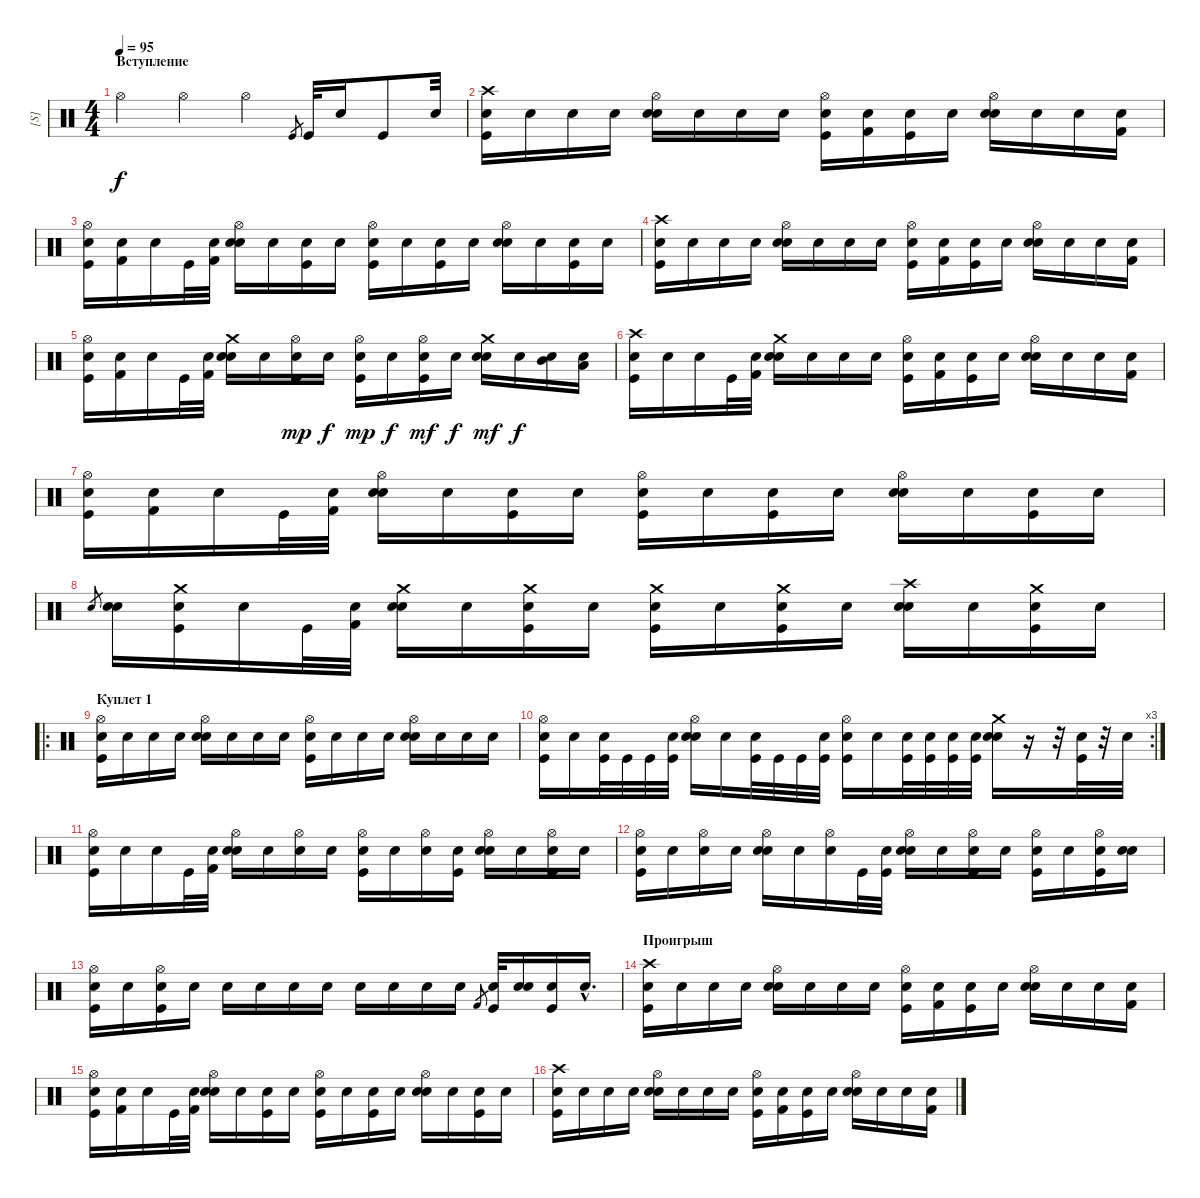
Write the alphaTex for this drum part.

\track ("[S]" "[S]") {instrument percussion}
\staff {score}
\articulation defaults
\ts (4 4)
\section ("" "Вступление")
\tempo 95
\clef neutral
\ks c "Hi-Hat (open)".4{dy f} "Hi-Hat (open)".4 "Hi-Hat (open)".4 "Kick (hit)".8{gr} "Kick (hit)".32 "Snare (hit) 2".16 "Kick (hit)".8 "Snare (hit)"{x}.32
|
("Crash high (hit)" "Kick (hit)" "Snare (hit)"{x}).16 "Snare (hit)"{x}.16 "Snare (hit)"{x}.16 "Snare (hit)"{x}.16 ("Hi-Hat (open)" "Snare (hit) 2" "Snare (hit)"{x}).16 "Snare (hit)"{x}.16 "Snare (hit)"{x}.16 "Snare (hit)"{x}.16 ("Hi-Hat (open)" "Kick (hit)" "Snare (hit)"{x}).16 ("Kick (hit) 2" "Snare (hit)"{x}).16 ("Kick (hit)" "Snare (hit)"{x}).16 "Snare (hit)"{x}.16 ("Hi-Hat (open)" "Snare (hit) 2" "Snare (hit)"{x}).16 "Snare (hit)"{x}.16 "Snare (hit)"{x}.16 ("Kick (hit) 2" "Snare (hit)"{x}).16 |
("Hi-Hat (open)" "Kick (hit)" "Snare (hit)"{x}).16 ("Kick (hit) 2" "Snare (hit)"{x}).16 "Snare (hit)"{x}.16 "Kick (hit)".32 ("Kick (hit) 2" "Snare (hit)"{x}).32 ("Hi-Hat (open)" "Snare (hit) 2" "Snare (hit)"{x}).16 "Snare (hit)"{x}.16 ("Kick (hit)" "Snare (hit)"{x}).16 "Snare (hit)"{x}.16 ("Hi-Hat (open)" "Kick (hit)" "Snare (hit)"{x}).16 "Snare (hit)"{x}.16 ("Kick (hit)" "Snare (hit)"{x}).16 "Snare (hit)"{x}.16 ("Hi-Hat (open)" "Snare (hit) 2" "Snare (hit)"{x}).16 "Snare (hit)"{x}.16 ("Kick (hit)" "Snare (hit)"{x}).16 "Snare (hit)"{x}.16 |
("Crash high (hit)" "Kick (hit)" "Snare (hit)"{x}).16 "Snare (hit)"{x}.16 "Snare (hit)"{x}.16 "Snare (hit)"{x}.16 ("Hi-Hat (open)" "Snare (hit) 2" "Snare (hit)"{x}).16 "Snare (hit)"{x}.16 "Snare (hit)"{x}.16 "Snare (hit)"{x}.16 ("Hi-Hat (open)" "Kick (hit)" "Snare (hit)"{x}).16 ("Kick (hit) 2" "Snare (hit)"{x}).16 ("Kick (hit)" "Snare (hit)"{x}).16 "Snare (hit)"{x}.16 ("Hi-Hat (open)" "Snare (hit) 2" "Snare (hit)"{x}).16 "Snare (hit)"{x}.16 "Snare (hit)"{x}.16 ("Kick (hit) 2" "Snare (hit)"{x}).16 |
("Hi-Hat (open)" "Kick (hit)" "Snare (hit)"{x}).16 ("Kick (hit) 2" "Snare (hit)"{x}).16 "Snare (hit)"{x}.16 "Kick (hit)".32 ("Kick (hit) 2" "Snare (hit)"{x}).32 ("Crash medium (hit)" "Snare (hit) 2" "Snare (hit)"{x}).16 "Snare (hit)"{x}.16 ("Hi-Hat (open)" "Kick (hit)" "Snare (hit)"{x}).16{dy mp} "Snare (hit)"{x}.16{dy f} ("Hi-Hat (open)" "Kick (hit)" "Snare (hit)"{x}).16{dy mp} "Snare (hit)"{x}.16{dy f} ("Hi-Hat (open)" "Kick (hit)" "Snare (hit)"{x}).16{dy mf} "Snare (hit)"{x}.16{dy f} ("Crash medium (hit)" "Snare (hit) 2" "Snare (hit)"{x}).16{dy mf} "Snare (hit)"{x}.16{dy f} ("Mid Tom (hit)" "Snare (hit)"{x}).16 ("Low Tom (hit)" "Snare (hit)"{x}).16 |
("Crash high (hit)" "Kick (hit)" "Snare (hit)"{x}).16 "Snare (hit)"{x}.16 "Snare (hit)"{x}.16 "Kick (hit)".32 ("Kick (hit) 2" "Snare (hit)"{x}).32 ("Crash medium (hit)" "Snare (hit) 2" "Snare (hit)"{x}).16 "Snare (hit)"{x}.16 "Snare (hit)"{x}.16 "Snare (hit)"{x}.16 ("Hi-Hat (open)" "Kick (hit)" "Snare (hit)"{x}).16 ("Kick (hit) 2" "Snare (hit)"{x}).16 ("Kick (hit)" "Snare (hit)"{x}).16 "Snare (hit)"{x}.16 ("Hi-Hat (open)" "Snare (hit) 2" "Snare (hit)"{x}).16 "Snare (hit)"{x}.16 "Snare (hit)"{x}.16 ("Kick (hit) 2" "Snare (hit)"{x}).16 |
("Hi-Hat (open)" "Kick (hit)" "Snare (hit)"{x}).16 ("Kick (hit) 2" "Snare (hit)"{x}).16 "Snare (hit)"{x}.16 "Kick (hit)".32 ("Kick (hit) 2" "Snare (hit)"{x}).32 ("Hi-Hat (open)" "Snare (hit) 2" "Snare (hit)"{x}).16 "Snare (hit)"{x}.16 ("Kick (hit)" "Snare (hit)"{x}).16 "Snare (hit)"{x}.16 ("Hi-Hat (open)" "Kick (hit)" "Snare (hit)"{x}).16 "Snare (hit)"{x}.16 ("Kick (hit)" "Snare (hit)"{x}).16 "Snare (hit)"{x}.16 ("Hi-Hat (open)" "Snare (hit) 2" "Snare (hit)"{x}).16 "Snare (hit)"{x}.16 ("Kick (hit)" "Snare (hit)"{x}).16 "Snare (hit)"{x}.16 |
"Snare (hit) 2".8{gr} ("Snare (hit) 2" "Snare (hit)"{x}).16 ("Crash medium (hit)" "Kick (hit)" "Snare (hit)"{x}).16 "Snare (hit)"{x}.16 "Kick (hit)".32 ("Kick (hit) 2" "Snare (hit)"{x}).32 ("Crash medium (hit)" "Snare (hit) 2" "Snare (hit)"{x}).16 "Snare (hit)"{x}.16 ("Crash medium (hit)" "Kick (hit)" "Snare (hit)"{x}).16 "Snare (hit)"{x}.16 ("Crash medium (hit)" "Kick (hit)" "Snare (hit)"{x}).16 "Snare (hit)"{x}.16 ("Crash medium (hit)" "Kick (hit)" "Snare (hit)"{x}).16 "Snare (hit)"{x}.16 ("Crash high (hit)" "Snare (hit) 2" "Snare (hit)"{x}).16 "Snare (hit)"{x}.16 ("Crash medium (hit)" "Kick (hit)" "Snare (hit)"{x}).16 "Snare (hit)"{x}.16 |
\ro
\section ("" "Куплет 1")
("Hi-Hat (open)" "Kick (hit)" "Snare (hit)"{x}).16 "Snare (hit)"{x}.16 "Snare (hit)"{x}.16 "Snare (hit)"{x}.16 ("Hi-Hat (open)" "Snare (hit) 2" "Snare (hit)"{x}).16 "Snare (hit)"{x}.16 "Snare (hit)"{x}.16 "Snare (hit)"{x}.16 ("Hi-Hat (open)" "Kick (hit)" "Snare (hit)"{x}).16 "Snare (hit)"{x}.16 "Snare (hit)"{x}.16 "Snare (hit)"{x}.16 ("Hi-Hat (open)" "Snare (hit) 2" "Snare (hit)"{x}).16 "Snare (hit)"{x}.16 "Snare (hit)"{x}.16 "Snare (hit)"{x}.16 |
\rc 3
("Hi-Hat (open)" "Kick (hit)" "Snare (hit)"{x}).16 "Snare (hit)"{x}.16 ("Kick (hit)" "Snare (hit)"{x}).32 "Kick (hit)".32 "Kick (hit)".32 ("Kick (hit)" "Snare (hit)"{x}).32 ("Hi-Hat (open)" "Snare (hit) 2" "Snare (hit)"{x}).16 "Snare (hit)"{x}.16 ("Kick (hit)" "Snare (hit)"{x}).32 "Kick (hit)".32 "Kick (hit)".32 ("Kick (hit)" "Snare (hit)"{x}).32 ("Hi-Hat (open)" "Kick (hit)" "Snare (hit)"{x}).16 "Snare (hit)"{x}.16 ("Kick (hit)" "Snare (hit)"{x}).32 ("Kick (hit)" "Snare (hit)"{x}).32 ("Kick (hit)" "Snare (hit)"{x}).32 ("Kick (hit)" "Snare (hit)"{x}).32 ("Crash medium (hit)" "Snare (hit) 2" "Snare (hit)"{x}).16 r.16 r.32 ("Kick (hit)" "Snare (hit)"{x}).32 r.32 "Snare (hit)"{x}.32 |
("Hi-Hat (open)" "Kick (hit)" "Snare (hit)"{x}).16 "Snare (hit)"{x}.16 "Snare (hit)"{x}.16 "Kick (hit)".32 ("Kick (hit) 2" "Snare (hit)"{x}).32 ("Hi-Hat (open)" "Snare (hit) 2" "Snare (hit)"{x}).16 "Snare (hit)"{x}.16 ("Hi-Hat (open)" "Snare (hit)"{x}).16 "Snare (hit)"{x}.16 ("Hi-Hat (open)" "Kick (hit)" "Snare (hit)"{x}).16 "Snare (hit)"{x}.16 ("Hi-Hat (open)" "Snare (hit)"{x}).16 ("Kick (hit)" "Snare (hit)"{x}).16 ("Hi-Hat (open)" "Snare (hit) 2" "Snare (hit)"{x}).16 "Snare (hit)"{x}.16 ("Hi-Hat (open)" "Kick (hit)" "Snare (hit)"{x}).16 "Snare (hit)"{x}.16 |
("Hi-Hat (open)" "Kick (hit)" "Snare (hit)"{x}).16 "Snare (hit)"{x}.16 ("Hi-Hat (open)" "Snare (hit)"{x}).16 "Snare (hit)"{x}.16 ("Hi-Hat (open)" "Snare (hit) 2" "Snare (hit)"{x}).16 "Snare (hit)"{x}.16 ("Hi-Hat (open)" "Snare (hit)"{x}).16 "Kick (hit)".32 ("Kick (hit)" "Snare (hit)"{x}).32 ("Hi-Hat (open)" "Snare (hit) 2" "Snare (hit)"{x}).16 "Snare (hit)"{x}.16 ("Hi-Hat (open)" "Kick (hit)" "Snare (hit)"{x}).16 "Snare (hit)"{x}.16 ("Hi-Hat (open)" "Kick (hit)" "Snare (hit)"{x}).16 "Snare (hit)"{x}.16 ("Hi-Hat (open)" "Kick (hit)" "Snare (hit)"{x}).16 ("Snare (hit) 2" "Snare (hit)"{x}).16 |
("Hi-Hat (open)" "Kick (hit)" "Snare (hit)"{x}).16 "Snare (hit)"{x}.16 ("Hi-Hat (open)" "Kick (hit)" "Snare (hit)"{x}).16 "Snare (hit)"{x}.16 "Snare (hit)"{x}.16 "Snare (hit)"{x}.16 "Snare (hit)"{x}.16 "Snare (hit)"{x}.16 "Snare (hit)"{x}.16 "Snare (hit)"{x}.16 "Snare (hit)"{x}.16 "Snare (hit)"{x}.16 "Kick (hit) 2".8{gr} ("Kick (hit)" "Snare (hit)"{x}).32 ("Snare (hit) 2" "Snare (hit)"{x}).16 ("Kick (hit)" "Snare (hit)"{x}).16 "Snare (hit)"{hac x}.16{d} |
\section ("" "Проигрыш")
("Crash high (hit)" "Kick (hit)" "Snare (hit)"{x}).16 "Snare (hit)"{x}.16 "Snare (hit)"{x}.16 "Snare (hit)"{x}.16 ("Hi-Hat (open)" "Snare (hit) 2" "Snare (hit)"{x}).16 "Snare (hit)"{x}.16 "Snare (hit)"{x}.16 "Snare (hit)"{x}.16 ("Hi-Hat (open)" "Kick (hit)" "Snare (hit)"{x}).16 ("Kick (hit) 2" "Snare (hit)"{x}).16 ("Kick (hit)" "Snare (hit)"{x}).16 "Snare (hit)"{x}.16 ("Hi-Hat (open)" "Snare (hit) 2" "Snare (hit)"{x}).16 "Snare (hit)"{x}.16 "Snare (hit)"{x}.16 ("Kick (hit) 2" "Snare (hit)"{x}).16 |
("Hi-Hat (open)" "Kick (hit)" "Snare (hit)"{x}).16 ("Kick (hit) 2" "Snare (hit)"{x}).16 "Snare (hit)"{x}.16 "Kick (hit)".32 ("Kick (hit) 2" "Snare (hit)"{x}).32 ("Hi-Hat (open)" "Snare (hit) 2" "Snare (hit)"{x}).16 "Snare (hit)"{x}.16 ("Kick (hit)" "Snare (hit)"{x}).16 "Snare (hit)"{x}.16 ("Hi-Hat (open)" "Kick (hit)" "Snare (hit)"{x}).16 "Snare (hit)"{x}.16 ("Kick (hit)" "Snare (hit)"{x}).16 "Snare (hit)"{x}.16 ("Hi-Hat (open)" "Snare (hit) 2" "Snare (hit)"{x}).16 "Snare (hit)"{x}.16 ("Kick (hit)" "Snare (hit)"{x}).16 "Snare (hit)"{x}.16 |
("Crash high (hit)" "Kick (hit)" "Snare (hit)"{x}).16 "Snare (hit)"{x}.16 "Snare (hit)"{x}.16 "Snare (hit)"{x}.16 ("Hi-Hat (open)" "Snare (hit) 2" "Snare (hit)"{x}).16 "Snare (hit)"{x}.16 "Snare (hit)"{x}.16 "Snare (hit)"{x}.16 ("Hi-Hat (open)" "Kick (hit)" "Snare (hit)"{x}).16 ("Kick (hit) 2" "Snare (hit)"{x}).16 ("Kick (hit)" "Snare (hit)"{x}).16 "Snare (hit)"{x}.16 ("Hi-Hat (open)" "Snare (hit) 2" "Snare (hit)"{x}).16 "Snare (hit)"{x}.16 "Snare (hit)"{x}.16 ("Kick (hit) 2" "Snare (hit)"{x}).16
